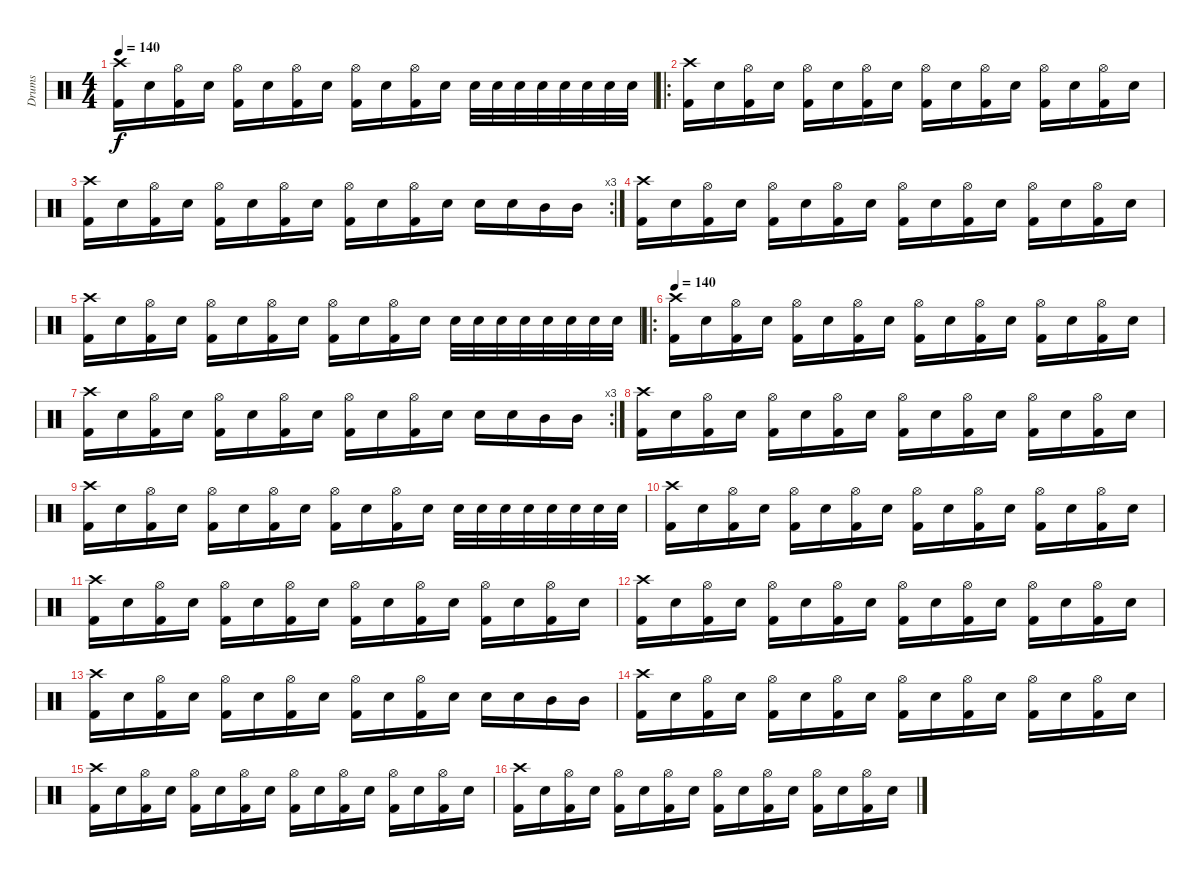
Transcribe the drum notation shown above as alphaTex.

\track ("Drums" "Drums") {instrument percussion}
\staff {score}
\articulation defaults
\ts (4 4)
\tempo 140
\clef neutral
\ks c
("Crash high (hit)" "Kick (hit) 2").16{dy f} "Snare (hit) 2".16 ("Hi-Hat (open)" "Kick (hit) 2").16 "Snare (hit) 2".16 ("Hi-Hat (open)" "Kick (hit) 2").16 "Snare (hit) 2".16 ("Hi-Hat (open)" "Kick (hit) 2").16 "Snare (hit) 2".16 ("Hi-Hat (open)" "Kick (hit) 2").16 "Snare (hit) 2".16 ("Hi-Hat (open)" "Kick (hit) 2").16 "Snare (hit) 2".16 "Snare (hit) 2".32 "Snare (hit) 2".32 "Snare (hit) 2".32 "Snare (hit) 2".32 "Snare (hit) 2".32 "Snare (hit) 2".32 "Snare (hit) 2".32 "Snare (hit) 2".32 |
\ro
("Crash high (hit)" "Kick (hit) 2").16 "Snare (hit) 2".16 ("Hi-Hat (open)" "Kick (hit) 2").16 "Snare (hit) 2".16 ("Hi-Hat (open)" "Kick (hit) 2").16 "Snare (hit) 2".16 ("Hi-Hat (open)" "Kick (hit) 2").16 "Snare (hit) 2".16 ("Hi-Hat (open)" "Kick (hit) 2").16 "Snare (hit) 2".16 ("Hi-Hat (open)" "Kick (hit) 2").16 "Snare (hit) 2".16 ("Hi-Hat (open)" "Kick (hit) 2").16 "Snare (hit) 2".16 ("Hi-Hat (open)" "Kick (hit) 2").16 "Snare (hit) 2".16 |
\rc 3
("Crash high (hit)" "Kick (hit) 2").16 "Snare (hit) 2".16 ("Hi-Hat (open)" "Kick (hit) 2").16 "Snare (hit) 2".16 ("Hi-Hat (open)" "Kick (hit) 2").16 "Snare (hit) 2".16 ("Hi-Hat (open)" "Kick (hit) 2").16 "Snare (hit) 2".16 ("Hi-Hat (open)" "Kick (hit) 2").16 "Snare (hit) 2".16 ("Hi-Hat (open)" "Kick (hit) 2").16 "Snare (hit) 2".16 "Snare (hit) 2".16 "Snare (hit) 2".16 "Mid Tom (hit)".16 "Mid Tom (hit)".16 |
("Crash high (hit)" "Kick (hit) 2").16 "Snare (hit) 2".16 ("Hi-Hat (open)" "Kick (hit) 2").16 "Snare (hit) 2".16 ("Hi-Hat (open)" "Kick (hit) 2").16 "Snare (hit) 2".16 ("Hi-Hat (open)" "Kick (hit) 2").16 "Snare (hit) 2".16 ("Hi-Hat (open)" "Kick (hit) 2").16 "Snare (hit) 2".16 ("Hi-Hat (open)" "Kick (hit) 2").16 "Snare (hit) 2".16 ("Hi-Hat (open)" "Kick (hit) 2").16 "Snare (hit) 2".16 ("Hi-Hat (open)" "Kick (hit) 2").16 "Snare (hit) 2".16 |
("Crash high (hit)" "Kick (hit) 2").16 "Snare (hit) 2".16 ("Hi-Hat (open)" "Kick (hit) 2").16 "Snare (hit) 2".16 ("Hi-Hat (open)" "Kick (hit) 2").16 "Snare (hit) 2".16 ("Hi-Hat (open)" "Kick (hit) 2").16 "Snare (hit) 2".16 ("Hi-Hat (open)" "Kick (hit) 2").16 "Snare (hit) 2".16 ("Hi-Hat (open)" "Kick (hit) 2").16 "Snare (hit) 2".16 "Snare (hit) 2".32 "Snare (hit) 2".32 "Snare (hit) 2".32 "Snare (hit) 2".32 "Snare (hit) 2".32 "Snare (hit) 2".32 "Snare (hit) 2".32 "Snare (hit) 2".32 |
\ro
\tempo 140
("Crash high (hit)" "Kick (hit) 2").16 "Snare (hit) 2".16 ("Hi-Hat (open)" "Kick (hit) 2").16 "Snare (hit) 2".16 ("Hi-Hat (open)" "Kick (hit) 2").16 "Snare (hit) 2".16 ("Hi-Hat (open)" "Kick (hit) 2").16 "Snare (hit) 2".16 ("Hi-Hat (open)" "Kick (hit) 2").16 "Snare (hit) 2".16 ("Hi-Hat (open)" "Kick (hit) 2").16 "Snare (hit) 2".16 ("Hi-Hat (open)" "Kick (hit) 2").16 "Snare (hit) 2".16 ("Hi-Hat (open)" "Kick (hit) 2").16 "Snare (hit) 2".16 |
\rc 3
("Crash high (hit)" "Kick (hit) 2").16 "Snare (hit) 2".16 ("Hi-Hat (open)" "Kick (hit) 2").16 "Snare (hit) 2".16 ("Hi-Hat (open)" "Kick (hit) 2").16 "Snare (hit) 2".16 ("Hi-Hat (open)" "Kick (hit) 2").16 "Snare (hit) 2".16 ("Hi-Hat (open)" "Kick (hit) 2").16 "Snare (hit) 2".16 ("Hi-Hat (open)" "Kick (hit) 2").16 "Snare (hit) 2".16 "Snare (hit) 2".16 "Snare (hit) 2".16 "Mid Tom (hit)".16 "Mid Tom (hit)".16 |
("Crash high (hit)" "Kick (hit) 2").16 "Snare (hit) 2".16 ("Hi-Hat (open)" "Kick (hit) 2").16 "Snare (hit) 2".16 ("Hi-Hat (open)" "Kick (hit) 2").16 "Snare (hit) 2".16 ("Hi-Hat (open)" "Kick (hit) 2").16 "Snare (hit) 2".16 ("Hi-Hat (open)" "Kick (hit) 2").16 "Snare (hit) 2".16 ("Hi-Hat (open)" "Kick (hit) 2").16 "Snare (hit) 2".16 ("Hi-Hat (open)" "Kick (hit) 2").16 "Snare (hit) 2".16 ("Hi-Hat (open)" "Kick (hit) 2").16 "Snare (hit) 2".16 |
("Crash high (hit)" "Kick (hit) 2").16 "Snare (hit) 2".16 ("Hi-Hat (open)" "Kick (hit) 2").16 "Snare (hit) 2".16 ("Hi-Hat (open)" "Kick (hit) 2").16 "Snare (hit) 2".16 ("Hi-Hat (open)" "Kick (hit) 2").16 "Snare (hit) 2".16 ("Hi-Hat (open)" "Kick (hit) 2").16 "Snare (hit) 2".16 ("Hi-Hat (open)" "Kick (hit) 2").16 "Snare (hit) 2".16 "Snare (hit) 2".32 "Snare (hit) 2".32 "Snare (hit) 2".32 "Snare (hit) 2".32 "Snare (hit) 2".32 "Snare (hit) 2".32 "Snare (hit) 2".32 "Snare (hit) 2".32 |
("Crash high (hit)" "Kick (hit) 2").16 "Snare (hit) 2".16 ("Hi-Hat (open)" "Kick (hit) 2").16 "Snare (hit) 2".16 ("Hi-Hat (open)" "Kick (hit) 2").16 "Snare (hit) 2".16 ("Hi-Hat (open)" "Kick (hit) 2").16 "Snare (hit) 2".16 ("Hi-Hat (open)" "Kick (hit) 2").16 "Snare (hit) 2".16 ("Hi-Hat (open)" "Kick (hit) 2").16 "Snare (hit) 2".16 ("Hi-Hat (open)" "Kick (hit) 2").16 "Snare (hit) 2".16 ("Hi-Hat (open)" "Kick (hit) 2").16 "Snare (hit) 2".16 |
("Crash high (hit)" "Kick (hit) 2").16 "Snare (hit) 2".16 ("Hi-Hat (open)" "Kick (hit) 2").16 "Snare (hit) 2".16 ("Hi-Hat (open)" "Kick (hit) 2").16 "Snare (hit) 2".16 ("Hi-Hat (open)" "Kick (hit) 2").16 "Snare (hit) 2".16 ("Hi-Hat (open)" "Kick (hit) 2").16 "Snare (hit) 2".16 ("Hi-Hat (open)" "Kick (hit) 2").16 "Snare (hit) 2".16 ("Hi-Hat (open)" "Kick (hit) 2").16 "Snare (hit) 2".16 ("Hi-Hat (open)" "Kick (hit) 2").16 "Snare (hit) 2".16 |
("Crash high (hit)" "Kick (hit) 2").16 "Snare (hit) 2".16 ("Hi-Hat (open)" "Kick (hit) 2").16 "Snare (hit) 2".16 ("Hi-Hat (open)" "Kick (hit) 2").16 "Snare (hit) 2".16 ("Hi-Hat (open)" "Kick (hit) 2").16 "Snare (hit) 2".16 ("Hi-Hat (open)" "Kick (hit) 2").16 "Snare (hit) 2".16 ("Hi-Hat (open)" "Kick (hit) 2").16 "Snare (hit) 2".16 ("Hi-Hat (open)" "Kick (hit) 2").16 "Snare (hit) 2".16 ("Hi-Hat (open)" "Kick (hit) 2").16 "Snare (hit) 2".16 |
("Crash high (hit)" "Kick (hit) 2").16 "Snare (hit) 2".16 ("Hi-Hat (open)" "Kick (hit) 2").16 "Snare (hit) 2".16 ("Hi-Hat (open)" "Kick (hit) 2").16 "Snare (hit) 2".16 ("Hi-Hat (open)" "Kick (hit) 2").16 "Snare (hit) 2".16 ("Hi-Hat (open)" "Kick (hit) 2").16 "Snare (hit) 2".16 ("Hi-Hat (open)" "Kick (hit) 2").16 "Snare (hit) 2".16 "Snare (hit) 2".16 "Snare (hit) 2".16 "Mid Tom (hit)".16 "Mid Tom (hit)".16 |
("Crash high (hit)" "Kick (hit) 2").16 "Snare (hit) 2".16 ("Hi-Hat (open)" "Kick (hit) 2").16 "Snare (hit) 2".16 ("Hi-Hat (open)" "Kick (hit) 2").16 "Snare (hit) 2".16 ("Hi-Hat (open)" "Kick (hit) 2").16 "Snare (hit) 2".16 ("Hi-Hat (open)" "Kick (hit) 2").16 "Snare (hit) 2".16 ("Hi-Hat (open)" "Kick (hit) 2").16 "Snare (hit) 2".16 ("Hi-Hat (open)" "Kick (hit) 2").16 "Snare (hit) 2".16 ("Hi-Hat (open)" "Kick (hit) 2").16 "Snare (hit) 2".16 |
("Crash high (hit)" "Kick (hit) 2").16 "Snare (hit) 2".16 ("Hi-Hat (open)" "Kick (hit) 2").16 "Snare (hit) 2".16 ("Hi-Hat (open)" "Kick (hit) 2").16 "Snare (hit) 2".16 ("Hi-Hat (open)" "Kick (hit) 2").16 "Snare (hit) 2".16 ("Hi-Hat (open)" "Kick (hit) 2").16 "Snare (hit) 2".16 ("Hi-Hat (open)" "Kick (hit) 2").16 "Snare (hit) 2".16 ("Hi-Hat (open)" "Kick (hit) 2").16 "Snare (hit) 2".16 ("Hi-Hat (open)" "Kick (hit) 2").16 "Snare (hit) 2".16 |
("Crash high (hit)" "Kick (hit) 2").16 "Snare (hit) 2".16 ("Hi-Hat (open)" "Kick (hit) 2").16 "Snare (hit) 2".16 ("Hi-Hat (open)" "Kick (hit) 2").16 "Snare (hit) 2".16 ("Hi-Hat (open)" "Kick (hit) 2").16 "Snare (hit) 2".16 ("Hi-Hat (open)" "Kick (hit) 2").16 "Snare (hit) 2".16 ("Hi-Hat (open)" "Kick (hit) 2").16 "Snare (hit) 2".16 ("Hi-Hat (open)" "Kick (hit) 2").16 "Snare (hit) 2".16 ("Hi-Hat (open)" "Kick (hit) 2").16 "Snare (hit) 2".16
